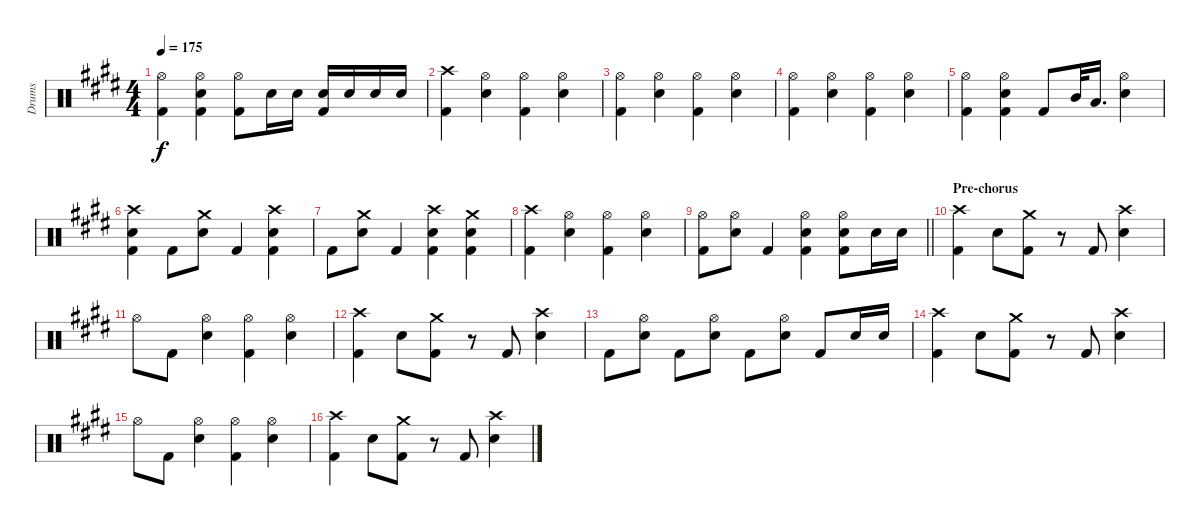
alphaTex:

\track ("Drums" "Drums") {instrument percussion}
\staff {score}
\articulation defaults
\ts (4 4)
\tempo 175
\clef neutral
\ks e
("Hi-Hat (open)" "Kick (hit) 2").4{dy f} ("Hi-Hat (open)" "Electric Snare (hit)" "Kick (hit) 2").4 ("Hi-Hat (open)" "Kick (hit) 2").8 "Electric Snare (hit)".16 "Electric Snare (hit)".16 ("Electric Snare (hit)" "Kick (hit) 2").16 "Electric Snare (hit)".16 "Electric Snare (hit)".16 "Electric Snare (hit)".16 |
("Crash high (hit)" "Kick (hit) 2").4 ("Hi-Hat (open)" "Electric Snare (hit)").4 ("Hi-Hat (open)" "Kick (hit) 2").4 ("Hi-Hat (open)" "Electric Snare (hit)").4 |
("Hi-Hat (open)" "Kick (hit) 2").4 ("Hi-Hat (open)" "Electric Snare (hit)").4 ("Hi-Hat (open)" "Kick (hit) 2").4 ("Hi-Hat (open)" "Electric Snare (hit)").4 |
("Hi-Hat (open)" "Kick (hit) 2").4 ("Hi-Hat (open)" "Electric Snare (hit)").4 ("Hi-Hat (open)" "Kick (hit) 2").4 ("Hi-Hat (open)" "Electric Snare (hit)").4 |
("Hi-Hat (open)" "Kick (hit) 2").4 ("Hi-Hat (open)" "Electric Snare (hit)" "Kick (hit) 2").4 "Kick (hit) 2".8 "Mid Tom (hit)".32 "Low Tom (hit)".16{d} ("Hi-Hat (open)" "Electric Snare (hit)").4 |
("Crash high (hit)" "Electric Snare (hit)" "Kick (hit) 2").4 "Kick (hit) 2".8 ("Crash medium (hit)" "Electric Snare (hit)").8 "Kick (hit) 2".4 ("Crash high (hit)" "Electric Snare (hit)" "Kick (hit) 2").4 |
"Kick (hit) 2".8 ("Crash medium (hit)" "Electric Snare (hit)").8 "Kick (hit) 2".4 ("Crash high (hit)" "Electric Snare (hit)" "Kick (hit) 2").4 ("Crash medium (hit)" "Electric Snare (hit)" "Kick (hit) 2").4 |
("Crash high (hit)" "Kick (hit) 2").4 ("Hi-Hat (open)" "Electric Snare (hit)").4 ("Hi-Hat (open)" "Kick (hit) 2").4 ("Hi-Hat (open)" "Electric Snare (hit)").4 |
\barLineRight lightlight
("Hi-Hat (open)" "Kick (hit) 2").8 ("Hi-Hat (open)" "Electric Snare (hit)").8 "Kick (hit) 2".4 ("Hi-Hat (open)" "Electric Snare (hit)" "Kick (hit) 2").4 ("Hi-Hat (open)" "Electric Snare (hit)" "Kick (hit) 2").8 "Electric Snare (hit)".16 "Electric Snare (hit)".16 |
\section ("" "Pre-chorus")
("Crash high (hit)" "Kick (hit) 2").4 "Electric Snare (hit)".8 ("Crash medium (hit)" "Kick (hit) 2").8 r.8 "Kick (hit) 2".8 ("Crash high (hit)" "Electric Snare (hit)").4 |
"Hi-Hat (open)".8 "Kick (hit) 2".8 ("Hi-Hat (open)" "Electric Snare (hit)").4 ("Hi-Hat (open)" "Kick (hit) 2").4 ("Hi-Hat (open)" "Electric Snare (hit)").4 |
("Crash high (hit)" "Kick (hit) 2").4 "Electric Snare (hit)".8 ("Crash medium (hit)" "Kick (hit) 2").8 r.8 "Kick (hit) 2".8 ("Crash high (hit)" "Electric Snare (hit)").4 |
"Kick (hit) 2".8 ("Hi-Hat (open)" "Electric Snare (hit)").8 "Kick (hit) 2".8 ("Hi-Hat (open)" "Electric Snare (hit)").8 "Kick (hit) 2".8 ("Hi-Hat (open)" "Electric Snare (hit)").8 "Kick (hit) 2".8 "Electric Snare (hit)".16 "Electric Snare (hit)".16 |
("Crash high (hit)" "Kick (hit) 2").4 "Electric Snare (hit)".8 ("Crash medium (hit)" "Kick (hit) 2").8 r.8 "Kick (hit) 2".8 ("Crash high (hit)" "Electric Snare (hit)").4 |
"Hi-Hat (open)".8 "Kick (hit) 2".8 ("Hi-Hat (open)" "Electric Snare (hit)").4 ("Hi-Hat (open)" "Kick (hit) 2").4 ("Hi-Hat (open)" "Electric Snare (hit)").4 |
("Crash high (hit)" "Kick (hit) 2").4 "Electric Snare (hit)".8 ("Crash medium (hit)" "Kick (hit) 2").8 r.8 "Kick (hit) 2".8 ("Crash high (hit)" "Electric Snare (hit)").4
